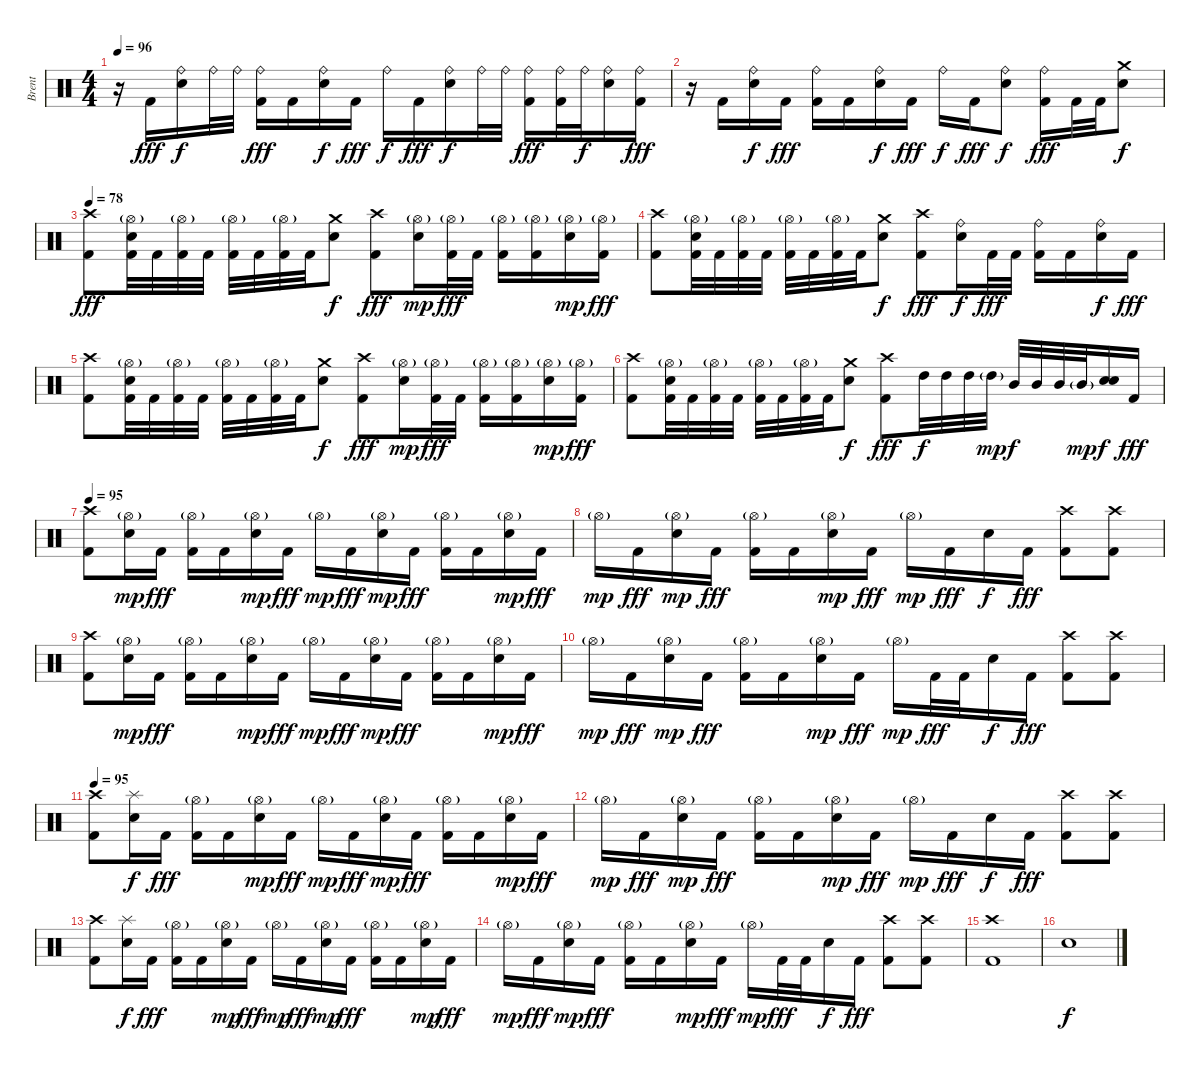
\track ("Brent" "Brent") {instrument percussion}
\staff {score}
\articulation defaults
\ts (4 4)
\tempo 96
\clef neutral
\ks c
r.16{dy fff} "Kick (hit) 2".16 ("Ride (bell)" "Snare (hit) 2").16{dy f} "Ride (bell)".32 "Ride (bell)".32 ("Ride (bell)" "Kick (hit) 2").16{dy fff} "Kick (hit) 2".16 ("Ride (bell)" "Snare (hit) 2").16{dy f} "Kick (hit) 2".16{dy fff} "Ride (bell)".16{dy f} "Kick (hit) 2".16{dy fff} ("Ride (bell)" "Snare (hit) 2").16{dy f} "Ride (bell)".32 "Ride (bell)".32 ("Ride (bell)" "Kick (hit) 2").16{dy fff} ("Ride (bell)" "Kick (hit) 2").32 "Ride (bell)".32{dy f} ("Ride (bell)" "Snare (hit) 2").16 ("Ride (bell)" "Kick (hit) 2").16{dy fff} |
r.16 "Kick (hit) 2".16 ("Ride (bell)" "Snare (hit) 2").16{dy f} "Kick (hit) 2".16{dy fff} ("Ride (bell)" "Kick (hit) 2").16 "Kick (hit) 2".16 ("Ride (bell)" "Snare (hit) 2").16{dy f} "Kick (hit) 2".16{dy fff} "Ride (bell)".16{dy f} "Kick (hit) 2".16{dy fff} ("Ride (bell)" "Snare (hit) 2").8{dy f} ("Ride (bell)" "Kick (hit) 2").16{dy fff} "Kick (hit) 2".32 "Kick (hit) 2".32 ("Crash medium (hit)" "Snare (hit) 2").8{dy f} |
\tempo 78
("Crash high (hit)" "Kick (hit) 2").8{dy fff} ("Hi-Hat (open)"{g} "Snare (hit) 2" "Kick (hit) 2").32 "Kick (hit) 2".32 ("Hi-Hat (open)"{g} "Kick (hit) 2").32 "Kick (hit) 2".32 ("Hi-Hat (open)"{g} "Kick (hit) 2").32 "Kick (hit) 2".32 ("Hi-Hat (open)"{g} "Kick (hit) 2").32 "Kick (hit) 2".32 ("Crash medium (hit)" "Snare (hit) 2").8{dy f} ("Crash high (hit)" "Kick (hit) 2").8{dy fff} ("Hi-Hat (open)"{g} "Snare (hit) 2").16{dy mp} ("Hi-Hat (open)"{g} "Kick (hit) 2").32{dy fff} "Kick (hit) 2".32 ("Hi-Hat (open)"{g} "Kick (hit) 2").16 ("Hi-Hat (open)"{g} "Kick (hit) 2").16 ("Hi-Hat (open)"{g} "Snare (hit) 2").16{dy mp} ("Hi-Hat (open)"{g} "Kick (hit) 2").16{dy fff} |
("Crash high (hit)" "Kick (hit) 2").8 ("Hi-Hat (open)"{g} "Snare (hit) 2" "Kick (hit) 2").32 "Kick (hit) 2".32 ("Hi-Hat (open)"{g} "Kick (hit) 2").32 "Kick (hit) 2".32 ("Hi-Hat (open)"{g} "Kick (hit) 2").32 "Kick (hit) 2".32 ("Hi-Hat (open)"{g} "Kick (hit) 2").32 "Kick (hit) 2".32 ("Crash medium (hit)" "Snare (hit) 2").8{dy f} ("Crash high (hit)" "Kick (hit) 2").8{dy fff} ("Ride (bell)" "Snare (hit) 2").16{dy f} "Kick (hit) 2".32{dy fff} "Kick (hit) 2".32 ("Ride (bell)" "Kick (hit) 2").16 "Kick (hit) 2".16 ("Ride (bell)" "Snare (hit) 2").16{dy f} "Kick (hit) 2".16{dy fff} |
("Crash high (hit)" "Kick (hit) 2").8 ("Hi-Hat (open)"{g} "Snare (hit) 2" "Kick (hit) 2").32 "Kick (hit) 2".32 ("Hi-Hat (open)"{g} "Kick (hit) 2").32 "Kick (hit) 2".32 ("Hi-Hat (open)"{g} "Kick (hit) 2").32 "Kick (hit) 2".32 ("Hi-Hat (open)"{g} "Kick (hit) 2").32 "Kick (hit) 2".32 ("Crash medium (hit)" "Snare (hit) 2").8{dy f} ("Crash high (hit)" "Kick (hit) 2").8{dy fff} ("Hi-Hat (open)"{g} "Snare (hit) 2").16{dy mp} ("Hi-Hat (open)"{g} "Kick (hit) 2").32{dy fff} "Kick (hit) 2".32 ("Hi-Hat (open)"{g} "Kick (hit) 2").16 ("Hi-Hat (open)"{g} "Kick (hit) 2").16 ("Hi-Hat (open)"{g} "Snare (hit) 2").16{dy mp} ("Hi-Hat (open)"{g} "Kick (hit) 2").16{dy fff} |
("Crash high (hit)" "Kick (hit) 2").8 ("Hi-Hat (open)"{g} "Snare (hit) 2" "Kick (hit) 2").32 "Kick (hit) 2".32 ("Hi-Hat (open)"{g} "Kick (hit) 2").32 "Kick (hit) 2".32 ("Hi-Hat (open)"{g} "Kick (hit) 2").32 "Kick (hit) 2".32 ("Hi-Hat (open)"{g} "Kick (hit) 2").32 "Kick (hit) 2".32 ("Crash medium (hit)" "Snare (hit) 2").8{dy f} ("Crash high (hit)" "Kick (hit) 2").8{dy fff} "High Tom (hit)".32{dy f} "High Tom (hit)".32 "High Tom (hit)".32 "High Tom (hit)"{g}.32{dy mp} "Mid Tom (hit)".32{dy f} "Mid Tom (hit)".32 "Mid Tom (hit)".32 "Mid Tom (hit)"{g}.32{dy mp} ("Snare (hit) 2" "Snare (hit) 2").16{dy f} "Kick (hit) 2".16{dy fff} |
\tempo 95
("Crash high (hit)" "Kick (hit) 2").8 ("Hi-Hat (open)"{g} "Snare (hit) 2").16{dy mp} "Kick (hit) 2".16{dy fff} ("Hi-Hat (open)"{g} "Kick (hit) 2").16 "Kick (hit) 2".16 ("Hi-Hat (open)"{g} "Snare (hit) 2").16{dy mp} "Kick (hit) 2".16{dy fff} "Hi-Hat (open)"{g}.16{dy mp} "Kick (hit) 2".16{dy fff} ("Hi-Hat (open)"{g} "Snare (hit) 2").16{dy mp} "Kick (hit) 2".16{dy fff} ("Hi-Hat (open)"{g} "Kick (hit) 2").16 "Kick (hit) 2".16 ("Hi-Hat (open)"{g} "Snare (hit) 2").16{dy mp} "Kick (hit) 2".16{dy fff} |
"Hi-Hat (open)"{g}.16{dy mp} "Kick (hit) 2".16{dy fff} ("Hi-Hat (open)"{g} "Snare (hit) 2").16{dy mp} "Kick (hit) 2".16{dy fff} ("Hi-Hat (open)"{g} "Kick (hit) 2").16 "Kick (hit) 2".16 ("Hi-Hat (open)"{g} "Snare (hit) 2").16{dy mp} "Kick (hit) 2".16{dy fff} "Hi-Hat (open)"{g}.16{dy mp} "Kick (hit) 2".16{dy fff} "Snare (hit) 2".16{dy f} "Kick (hit) 2".16{dy fff} ("Crash high (hit)" "Kick (hit) 2").8 ("Crash high (hit)" "Kick (hit) 2").8 |
("Crash high (hit)" "Kick (hit) 2").8 ("Hi-Hat (open)"{g} "Snare (hit) 2").16{dy mp} "Kick (hit) 2".16{dy fff} ("Hi-Hat (open)"{g} "Kick (hit) 2").16 "Kick (hit) 2".16 ("Hi-Hat (open)"{g} "Snare (hit) 2").16{dy mp} "Kick (hit) 2".16{dy fff} "Hi-Hat (open)"{g}.16{dy mp} "Kick (hit) 2".16{dy fff} ("Hi-Hat (open)"{g} "Snare (hit) 2").16{dy mp} "Kick (hit) 2".16{dy fff} ("Hi-Hat (open)"{g} "Kick (hit) 2").16 "Kick (hit) 2".16 ("Hi-Hat (open)"{g} "Snare (hit) 2").16{dy mp} "Kick (hit) 2".16{dy fff} |
"Hi-Hat (open)"{g}.16{dy mp} "Kick (hit) 2".16{dy fff} ("Hi-Hat (open)"{g} "Snare (hit) 2").16{dy mp} "Kick (hit) 2".16{dy fff} ("Hi-Hat (open)"{g} "Kick (hit) 2").16 "Kick (hit) 2".16 ("Hi-Hat (open)"{g} "Snare (hit) 2").16{dy mp} "Kick (hit) 2".16{dy fff} "Hi-Hat (open)"{g}.16{dy mp} "Kick (hit) 2".32{dy fff} "Kick (hit) 2".32 "Snare (hit) 2".16{dy f} "Kick (hit) 2".16{dy fff} ("Crash high (hit)" "Kick (hit) 2").8 ("Crash high (hit)" "Kick (hit) 2").8 |
\tempo 95
("Crash high (hit)" "Kick (hit) 2").8 ("Splash (hit)" "Snare (hit) 2").16{dy f} "Kick (hit) 2".16{dy fff} ("Hi-Hat (open)"{g} "Kick (hit) 2").16 "Kick (hit) 2".16 ("Hi-Hat (open)"{g} "Snare (hit) 2").16{dy mp} "Kick (hit) 2".16{dy fff} "Hi-Hat (open)"{g}.16{dy mp} "Kick (hit) 2".16{dy fff} ("Hi-Hat (open)"{g} "Snare (hit) 2").16{dy mp} "Kick (hit) 2".16{dy fff} ("Hi-Hat (open)"{g} "Kick (hit) 2").16 "Kick (hit) 2".16 ("Hi-Hat (open)"{g} "Snare (hit) 2").16{dy mp} "Kick (hit) 2".16{dy fff} |
"Hi-Hat (open)"{g}.16{dy mp} "Kick (hit) 2".16{dy fff} ("Hi-Hat (open)"{g} "Snare (hit) 2").16{dy mp} "Kick (hit) 2".16{dy fff} ("Hi-Hat (open)"{g} "Kick (hit) 2").16 "Kick (hit) 2".16 ("Hi-Hat (open)"{g} "Snare (hit) 2").16{dy mp} "Kick (hit) 2".16{dy fff} "Hi-Hat (open)"{g}.16{dy mp} "Kick (hit) 2".16{dy fff} "Snare (hit) 2".16{dy f} "Kick (hit) 2".16{dy fff} ("Crash high (hit)" "Kick (hit) 2").8 ("Crash high (hit)" "Kick (hit) 2").8 |
("Crash high (hit)" "Kick (hit) 2").8 ("Splash (hit)" "Snare (hit) 2").16{dy f} "Kick (hit) 2".16{dy fff} ("Hi-Hat (open)"{g} "Kick (hit) 2").16 "Kick (hit) 2".16 ("Hi-Hat (open)"{g} "Snare (hit) 2").16{dy mp} "Kick (hit) 2".16{dy fff} "Hi-Hat (open)"{g}.16{dy mp} "Kick (hit) 2".16{dy fff} ("Hi-Hat (open)"{g} "Snare (hit) 2").16{dy mp} "Kick (hit) 2".16{dy fff} ("Hi-Hat (open)"{g} "Kick (hit) 2").16 "Kick (hit) 2".16 ("Hi-Hat (open)"{g} "Snare (hit) 2").16{dy mp} "Kick (hit) 2".16{dy fff} |
"Hi-Hat (open)"{g}.16{dy mp} "Kick (hit) 2".16{dy fff} ("Hi-Hat (open)"{g} "Snare (hit) 2").16{dy mp} "Kick (hit) 2".16{dy fff} ("Hi-Hat (open)"{g} "Kick (hit) 2").16 "Kick (hit) 2".16 ("Hi-Hat (open)"{g} "Snare (hit) 2").16{dy mp} "Kick (hit) 2".16{dy fff} "Hi-Hat (open)"{g}.16{dy mp} "Kick (hit) 2".32{dy fff} "Kick (hit) 2".32 "Snare (hit) 2".16{dy f} "Kick (hit) 2".16{dy fff} ("Crash high (hit)" "Kick (hit) 2").8 ("Crash high (hit)" "Kick (hit) 2").8 |
("Crash high (hit)" "Kick (hit) 2").1 |
"Snare (hit)".1{dy f}
